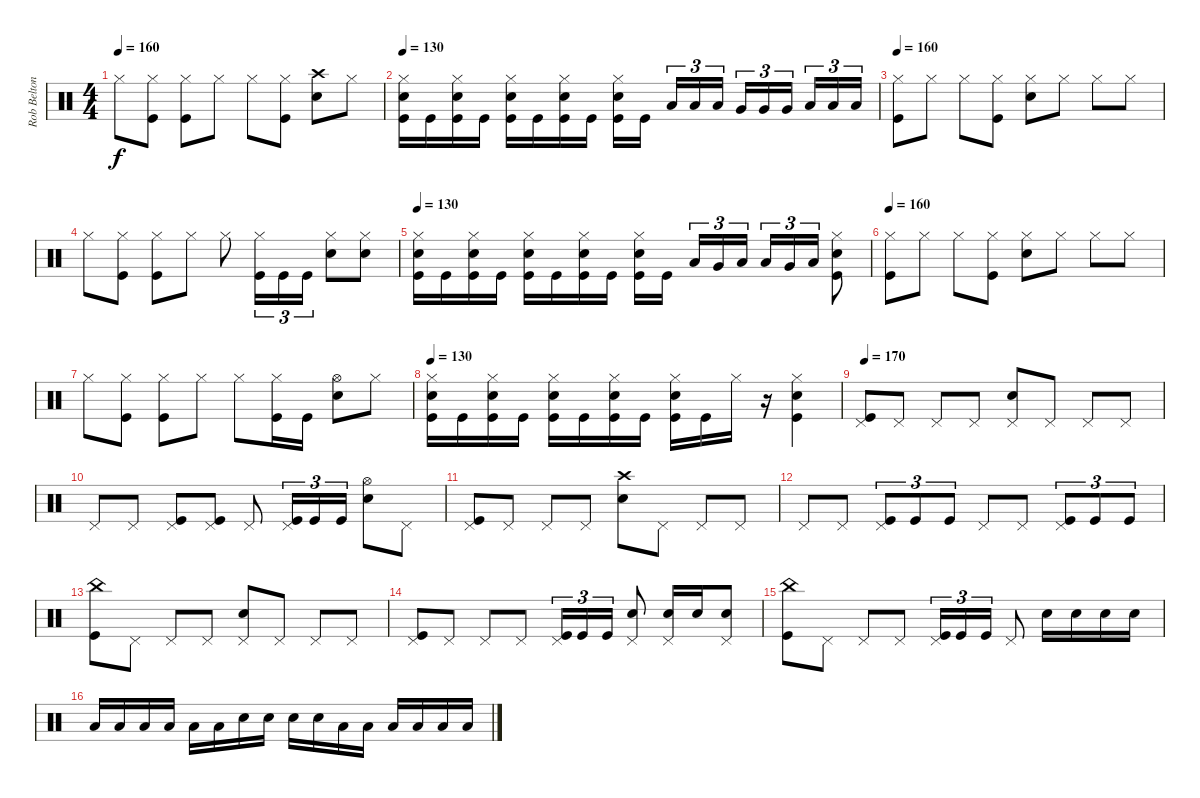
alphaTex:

\track ("Rob Belton" "Rob Belton") {instrument percussion}
\staff {score}
\articulation defaults
\ts (4 4)
\tempo 160
\clef neutral
\ks c "Hi-Hat (closed)".8{dy f}
("Hi-Hat (closed)" "Kick (hit)").8 ("Hi-Hat (closed)" "Kick (hit)").8 "Hi-Hat (closed)".8 "Hi-Hat (closed)".8 ("Hi-Hat (closed)" "Kick (hit)").8 ("Crash high (hit)" "Snare (hit) 2").8 "Hi-Hat (closed)".8 |
\tempo 130
("Hi-Hat (closed)" "Snare (hit) 2" "Kick (hit)").16 "Kick (hit)".16 ("Hi-Hat (closed)" "Snare (hit) 2" "Kick (hit)").16 "Kick (hit)".16 ("Hi-Hat (closed)" "Snare (hit) 2" "Kick (hit)").16 "Kick (hit)".16 ("Hi-Hat (closed)" "Snare (hit) 2" "Kick (hit)").16 "Kick (hit)".16 ("Hi-Hat (closed)" "Snare (hit) 2" "Kick (hit)").16 "Kick (hit)".16{beam splitsecondary} "Low Tom (hit)".16{tu (3 2)} "Low Tom (hit)".16{tu (3 2)} "Low Tom (hit)".16{tu (3 2)} "Very Low Tom (hit)".16{tu (3 2)} "Very Low Tom (hit)".16{tu (3 2)} "Very Low Tom (hit)".16{tu (3 2) beam splitsecondary} "Low Floor Tom (hit)".16{tu (3 2)} "Low Floor Tom (hit)".16{tu (3 2)} "Low Floor Tom (hit)".16{tu (3 2)} |
\tempo 160
("Hi-Hat (closed)" "Kick (hit)").8 "Hi-Hat (closed)".8 "Hi-Hat (closed)".8 ("Hi-Hat (closed)" "Kick (hit)").8 ("Hi-Hat (closed)" "Snare (hit) 2").8 "Hi-Hat (closed)".8 "Hi-Hat (closed)".8 "Hi-Hat (closed)".8 |
"Hi-Hat (closed)".8 ("Hi-Hat (closed)" "Kick (hit)").8 ("Hi-Hat (closed)" "Kick (hit)").8 "Hi-Hat (closed)".8 "Hi-Hat (closed)".8 ("Hi-Hat (closed)" "Kick (hit)").16{tu (3 2)} "Kick (hit)".16{tu (3 2)} "Kick (hit)".16{tu (3 2)} ("Hi-Hat (closed)" "Snare (hit) 2").8 ("Hi-Hat (closed)" "Snare (hit) 2").8 |
\tempo 130
("Hi-Hat (closed)" "Snare (hit) 2" "Kick (hit)").16 "Kick (hit)".16 ("Hi-Hat (closed)" "Snare (hit) 2" "Kick (hit)").16 "Kick (hit)".16 ("Hi-Hat (closed)" "Snare (hit) 2" "Kick (hit)").16 "Kick (hit)".16 ("Hi-Hat (closed)" "Snare (hit) 2" "Kick (hit)").16 "Kick (hit)".16 ("Hi-Hat (closed)" "Snare (hit) 2" "Kick (hit)").16 "Kick (hit)".16{beam splitsecondary} "Low Tom (hit)".16{tu (3 2)} "Very Low Tom (hit)".16{tu (3 2)} "Low Floor Tom (hit)".16{tu (3 2)} "Low Tom (hit)".16{tu (3 2)} "Very Low Tom (hit)".16{tu (3 2)} "Low Floor Tom (hit)".16{tu (3 2)} ("Hi-Hat (closed)" "Snare (hit) 2" "Kick (hit)").8 |
\tempo 160
("Hi-Hat (closed)" "Kick (hit)").8 "Hi-Hat (closed)".8 "Hi-Hat (closed)".8 ("Hi-Hat (closed)" "Kick (hit)").8 ("Hi-Hat (closed)" "Snare (hit) 2").8 "Hi-Hat (closed)".8 "Hi-Hat (closed)".8 "Hi-Hat (closed)".8 |
"Hi-Hat (closed)".8 ("Hi-Hat (closed)" "Kick (hit)").8 ("Hi-Hat (closed)" "Kick (hit)").8 "Hi-Hat (closed)".8 "Hi-Hat (closed)".8 ("Hi-Hat (closed)" "Kick (hit)").16 "Kick (hit)".16 ("Hi-Hat (open)" "Snare (hit) 2").8 "Hi-Hat (closed)".8 |
\tempo 130
("Hi-Hat (closed)" "Snare (hit) 2" "Kick (hit)").16 "Kick (hit)".16 ("Hi-Hat (closed)" "Snare (hit) 2" "Kick (hit)").16 "Kick (hit)".16 ("Hi-Hat (closed)" "Snare (hit) 2" "Kick (hit)").16 "Kick (hit)".16 ("Hi-Hat (closed)" "Snare (hit) 2" "Kick (hit)").16 "Kick (hit)".16 ("Hi-Hat (closed)" "Snare (hit) 2" "Kick (hit)").16 "Kick (hit)".16 "Hi-Hat (closed)".16 r.16 ("Hi-Hat (closed)" "Snare (hit) 2" "Kick (hit)").4 |
\tempo 170
("Pedal Hi-Hat (hit)" "Kick (hit)").8 "Pedal Hi-Hat (hit)".8 "Pedal Hi-Hat (hit)".8 "Pedal Hi-Hat (hit)".8 ("Pedal Hi-Hat (hit)" "Snare (hit) 2").8 "Pedal Hi-Hat (hit)".8 "Pedal Hi-Hat (hit)".8 "Pedal Hi-Hat (hit)".8 |
"Pedal Hi-Hat (hit)".8 "Pedal Hi-Hat (hit)".8 ("Pedal Hi-Hat (hit)" "Kick (hit)").8 ("Pedal Hi-Hat (hit)" "Kick (hit)").8 "Pedal Hi-Hat (hit)".8 ("Pedal Hi-Hat (hit)" "Kick (hit)").16{tu (3 2)} "Kick (hit)".16{tu (3 2)} "Kick (hit)".16{tu (3 2)} ("Hi-Hat (open)" "Snare (hit) 2").8 "Pedal Hi-Hat (hit)".8 |
("Pedal Hi-Hat (hit)" "Kick (hit)").8 "Pedal Hi-Hat (hit)".8 "Pedal Hi-Hat (hit)".8 "Pedal Hi-Hat (hit)".8 ("Crash high (hit)" "Snare (hit) 2").8 "Pedal Hi-Hat (hit)".8 "Pedal Hi-Hat (hit)".8 "Pedal Hi-Hat (hit)".8 |
"Pedal Hi-Hat (hit)".8 "Pedal Hi-Hat (hit)".8 ("Pedal Hi-Hat (hit)" "Kick (hit)").8{tu (3 2)} "Kick (hit)".8{tu (3 2)} "Kick (hit)".8{tu (3 2)} "Pedal Hi-Hat (hit)".8 "Pedal Hi-Hat (hit)".8 ("Pedal Hi-Hat (hit)" "Kick (hit)").8{tu (3 2)} "Kick (hit)".8{tu (3 2)} "Kick (hit)".8{tu (3 2)} |
("China (hit)" "Kick (hit)").8 "Pedal Hi-Hat (hit)".8 "Pedal Hi-Hat (hit)".8 "Pedal Hi-Hat (hit)".8 ("Pedal Hi-Hat (hit)" "Snare (hit) 2").8 "Pedal Hi-Hat (hit)".8 "Pedal Hi-Hat (hit)".8 "Pedal Hi-Hat (hit)".8 |
("Pedal Hi-Hat (hit)" "Kick (hit)").8 "Pedal Hi-Hat (hit)".8 "Pedal Hi-Hat (hit)".8 "Pedal Hi-Hat (hit)".8 ("Pedal Hi-Hat (hit)" "Kick (hit)").16{tu (3 2)} "Kick (hit)".16{tu (3 2)} "Kick (hit)".16{tu (3 2)} ("Pedal Hi-Hat (hit)" "Snare (hit) 2").8 ("Pedal Hi-Hat (hit)" "Snare (hit) 2").16 "Snare (hit) 2".16 ("Pedal Hi-Hat (hit)" "Snare (hit) 2").8 |
("China (hit)" "Kick (hit)").8 "Pedal Hi-Hat (hit)".8 "Pedal Hi-Hat (hit)".8 "Pedal Hi-Hat (hit)".8 ("Pedal Hi-Hat (hit)" "Kick (hit)").16{tu (3 2)} "Kick (hit)".16{tu (3 2)} "Kick (hit)".16{tu (3 2)} "Pedal Hi-Hat (hit)".8 "Snare (hit) 2".16 "Snare (hit) 2".16 "Snare (hit) 2".16 "Snare (hit) 2".16 |
"Low Floor Tom (hit)".16 "Low Floor Tom (hit)".16 "Low Floor Tom (hit)".16 "Low Floor Tom (hit)".16 "Low Floor Tom (hit)".16 "Low Floor Tom (hit)".16 "Snare (hit) 2".16 "Snare (hit) 2".16 "Snare (hit) 2".16 "Snare (hit) 2".16 "Low Floor Tom (hit)".16 "Low Floor Tom (hit)".16 "Low Floor Tom (hit)".16 "Low Floor Tom (hit)".16 "Low Floor Tom (hit)".16 "Low Floor Tom (hit)".16
